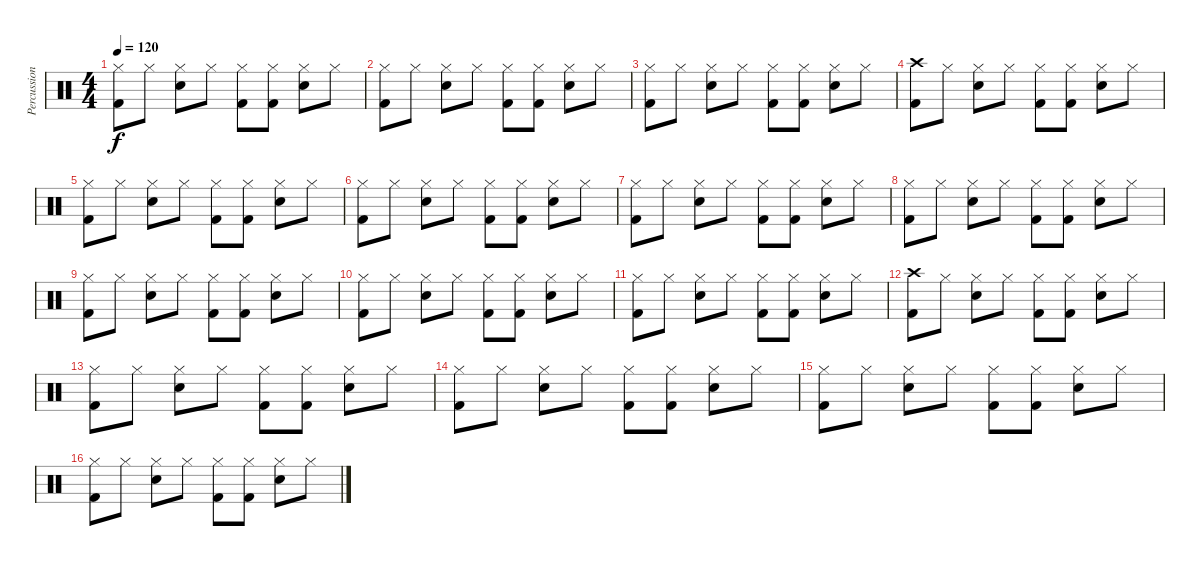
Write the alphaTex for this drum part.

\track ("Percussion" "Percussion") {instrument percussion}
\staff {score}
\articulation defaults
\ts (4 4)
\tempo 120
\clef neutral
\ks c
("Hi-Hat (closed)" "Kick (hit) 2").8{dy f} "Hi-Hat (closed)".8 ("Hi-Hat (closed)" "Electric Snare (hit)").8 "Hi-Hat (closed)".8 ("Hi-Hat (closed)" "Kick (hit) 2").8 ("Hi-Hat (closed)" "Kick (hit) 2").8 ("Hi-Hat (closed)" "Electric Snare (hit)").8 "Hi-Hat (closed)".8 |
("Hi-Hat (closed)" "Kick (hit) 2").8 "Hi-Hat (closed)".8 ("Hi-Hat (closed)" "Electric Snare (hit)").8 "Hi-Hat (closed)".8 ("Hi-Hat (closed)" "Kick (hit) 2").8 ("Hi-Hat (closed)" "Kick (hit) 2").8 ("Hi-Hat (closed)" "Electric Snare (hit)").8 "Hi-Hat (closed)".8 |
("Hi-Hat (closed)" "Kick (hit) 2").8 "Hi-Hat (closed)".8 ("Hi-Hat (closed)" "Electric Snare (hit)").8 "Hi-Hat (closed)".8 ("Hi-Hat (closed)" "Kick (hit) 2").8 ("Hi-Hat (closed)" "Kick (hit) 2").8 ("Hi-Hat (closed)" "Electric Snare (hit)").8 "Hi-Hat (closed)".8 |
("Crash high (hit)" "Kick (hit) 2").8 "Hi-Hat (closed)".8 ("Hi-Hat (closed)" "Electric Snare (hit)").8 "Hi-Hat (closed)".8 ("Hi-Hat (closed)" "Kick (hit) 2").8 ("Hi-Hat (closed)" "Kick (hit) 2").8 ("Hi-Hat (closed)" "Electric Snare (hit)").8 "Hi-Hat (closed)".8 |
("Hi-Hat (closed)" "Kick (hit) 2").8 "Hi-Hat (closed)".8 ("Hi-Hat (closed)" "Electric Snare (hit)").8 "Hi-Hat (closed)".8 ("Hi-Hat (closed)" "Kick (hit) 2").8 ("Hi-Hat (closed)" "Kick (hit) 2").8 ("Hi-Hat (closed)" "Electric Snare (hit)").8 "Hi-Hat (closed)".8 |
("Hi-Hat (closed)" "Kick (hit) 2").8 "Hi-Hat (closed)".8 ("Hi-Hat (closed)" "Electric Snare (hit)").8 "Hi-Hat (closed)".8 ("Hi-Hat (closed)" "Kick (hit) 2").8 ("Hi-Hat (closed)" "Kick (hit) 2").8 ("Hi-Hat (closed)" "Electric Snare (hit)").8 "Hi-Hat (closed)".8 |
("Hi-Hat (closed)" "Kick (hit) 2").8 "Hi-Hat (closed)".8 ("Hi-Hat (closed)" "Electric Snare (hit)").8 "Hi-Hat (closed)".8 ("Hi-Hat (closed)" "Kick (hit) 2").8 ("Hi-Hat (closed)" "Kick (hit) 2").8 ("Hi-Hat (closed)" "Electric Snare (hit)").8 "Hi-Hat (closed)".8 |
("Hi-Hat (closed)" "Kick (hit) 2").8 "Hi-Hat (closed)".8 ("Hi-Hat (closed)" "Electric Snare (hit)").8 "Hi-Hat (closed)".8 ("Hi-Hat (closed)" "Kick (hit) 2").8 ("Hi-Hat (closed)" "Kick (hit) 2").8 ("Hi-Hat (closed)" "Electric Snare (hit)").8 "Hi-Hat (closed)".8 |
("Hi-Hat (closed)" "Kick (hit) 2").8 "Hi-Hat (closed)".8 ("Hi-Hat (closed)" "Electric Snare (hit)").8 "Hi-Hat (closed)".8 ("Hi-Hat (closed)" "Kick (hit) 2").8 ("Hi-Hat (closed)" "Kick (hit) 2").8 ("Hi-Hat (closed)" "Electric Snare (hit)").8 "Hi-Hat (closed)".8 |
("Hi-Hat (closed)" "Kick (hit) 2").8 "Hi-Hat (closed)".8 ("Hi-Hat (closed)" "Electric Snare (hit)").8 "Hi-Hat (closed)".8 ("Hi-Hat (closed)" "Kick (hit) 2").8 ("Hi-Hat (closed)" "Kick (hit) 2").8 ("Hi-Hat (closed)" "Electric Snare (hit)").8 "Hi-Hat (closed)".8 |
("Hi-Hat (closed)" "Kick (hit) 2").8 "Hi-Hat (closed)".8 ("Hi-Hat (closed)" "Electric Snare (hit)").8 "Hi-Hat (closed)".8 ("Hi-Hat (closed)" "Kick (hit) 2").8 ("Hi-Hat (closed)" "Kick (hit) 2").8 ("Hi-Hat (closed)" "Electric Snare (hit)").8 "Hi-Hat (closed)".8 |
("Crash high (hit)" "Kick (hit) 2").8 "Hi-Hat (closed)".8 ("Hi-Hat (closed)" "Electric Snare (hit)").8 "Hi-Hat (closed)".8 ("Hi-Hat (closed)" "Kick (hit) 2").8 ("Hi-Hat (closed)" "Kick (hit) 2").8 ("Hi-Hat (closed)" "Electric Snare (hit)").8 "Hi-Hat (closed)".8 |
("Hi-Hat (closed)" "Kick (hit) 2").8 "Hi-Hat (closed)".8 ("Hi-Hat (closed)" "Electric Snare (hit)").8 "Hi-Hat (closed)".8 ("Hi-Hat (closed)" "Kick (hit) 2").8 ("Hi-Hat (closed)" "Kick (hit) 2").8 ("Hi-Hat (closed)" "Electric Snare (hit)").8 "Hi-Hat (closed)".8 |
("Hi-Hat (closed)" "Kick (hit) 2").8 "Hi-Hat (closed)".8 ("Hi-Hat (closed)" "Electric Snare (hit)").8 "Hi-Hat (closed)".8 ("Hi-Hat (closed)" "Kick (hit) 2").8 ("Hi-Hat (closed)" "Kick (hit) 2").8 ("Hi-Hat (closed)" "Electric Snare (hit)").8 "Hi-Hat (closed)".8 |
("Hi-Hat (closed)" "Kick (hit) 2").8 "Hi-Hat (closed)".8 ("Hi-Hat (closed)" "Electric Snare (hit)").8 "Hi-Hat (closed)".8 ("Hi-Hat (closed)" "Kick (hit) 2").8 ("Hi-Hat (closed)" "Kick (hit) 2").8 ("Hi-Hat (closed)" "Electric Snare (hit)").8 "Hi-Hat (closed)".8 |
("Hi-Hat (closed)" "Kick (hit) 2").8 "Hi-Hat (closed)".8 ("Hi-Hat (closed)" "Electric Snare (hit)").8 "Hi-Hat (closed)".8 ("Hi-Hat (closed)" "Kick (hit) 2").8 ("Hi-Hat (closed)" "Kick (hit) 2").8 ("Hi-Hat (closed)" "Electric Snare (hit)").8 "Hi-Hat (closed)".8
